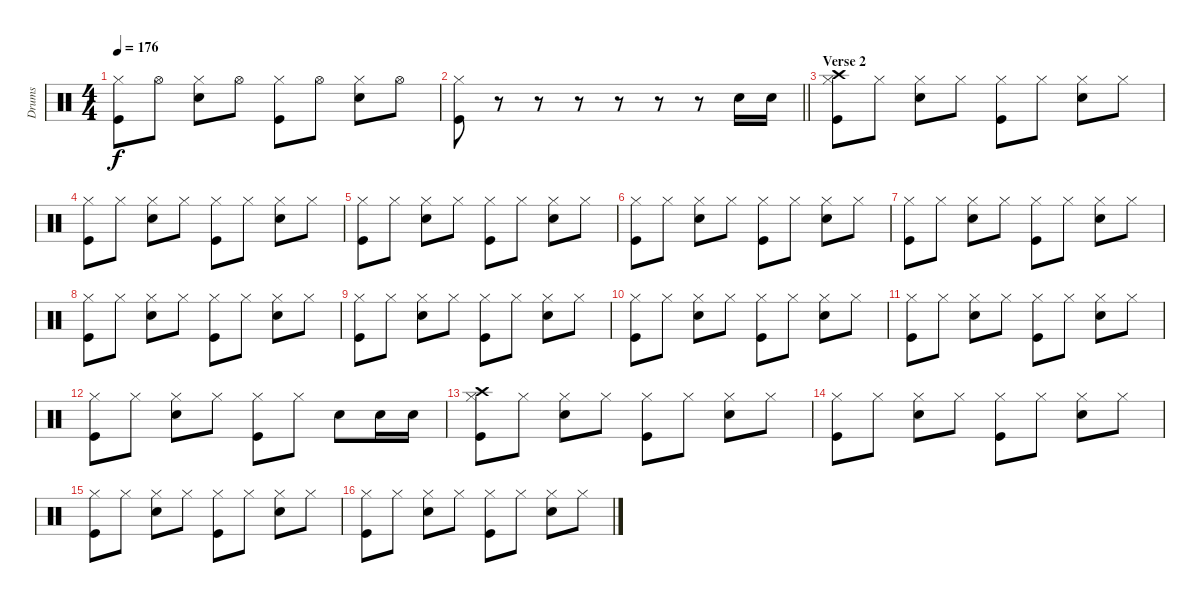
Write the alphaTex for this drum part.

\track ("Drums" "Drums") {instrument percussion}
\staff {score}
\articulation defaults
\ts (4 4)
\tempo 176
\clef neutral
\ks c
("Hi-Hat (closed)" "Kick (hit)").8{dy f} "Hi-Hat (open)".8 ("Hi-Hat (closed)" "Electric Snare (hit)").8 "Hi-Hat (open)".8 ("Hi-Hat (closed)" "Kick (hit)").8 "Hi-Hat (open)".8 ("Hi-Hat (closed)" "Electric Snare (hit)").8 "Hi-Hat (open)".8 |
\barLineRight lightlight
("Hi-Hat (closed)" "Kick (hit)").8 r.8 r.8 r.8 r.8 r.8 r.8 "Electric Snare (hit)".16 "Electric Snare (hit)".16 |
\section ("" "Verse 2")
("Crash high (hit)" "Hi-Hat (closed)" "Kick (hit)").8 "Hi-Hat (closed)".8 ("Hi-Hat (closed)" "Electric Snare (hit)").8 "Hi-Hat (closed)".8 ("Hi-Hat (closed)" "Kick (hit)").8 "Hi-Hat (closed)".8 ("Hi-Hat (closed)" "Electric Snare (hit)").8 "Hi-Hat (closed)".8 |
("Hi-Hat (closed)" "Kick (hit)").8 "Hi-Hat (closed)".8 ("Hi-Hat (closed)" "Electric Snare (hit)").8 "Hi-Hat (closed)".8 ("Hi-Hat (closed)" "Kick (hit)").8 "Hi-Hat (closed)".8 ("Hi-Hat (closed)" "Electric Snare (hit)").8 "Hi-Hat (closed)".8 |
("Hi-Hat (closed)" "Kick (hit)").8 "Hi-Hat (closed)".8 ("Hi-Hat (closed)" "Electric Snare (hit)").8 "Hi-Hat (closed)".8 ("Hi-Hat (closed)" "Kick (hit)").8 "Hi-Hat (closed)".8 ("Hi-Hat (closed)" "Electric Snare (hit)").8 "Hi-Hat (closed)".8 |
("Hi-Hat (closed)" "Kick (hit)").8 "Hi-Hat (closed)".8 ("Hi-Hat (closed)" "Electric Snare (hit)").8 "Hi-Hat (closed)".8 ("Hi-Hat (closed)" "Kick (hit)").8 "Hi-Hat (closed)".8 ("Hi-Hat (closed)" "Electric Snare (hit)").8 "Hi-Hat (closed)".8 |
("Hi-Hat (closed)" "Kick (hit)").8 "Hi-Hat (closed)".8 ("Hi-Hat (closed)" "Electric Snare (hit)").8 "Hi-Hat (closed)".8 ("Hi-Hat (closed)" "Kick (hit)").8 "Hi-Hat (closed)".8 ("Hi-Hat (closed)" "Electric Snare (hit)").8 "Hi-Hat (closed)".8 |
("Hi-Hat (closed)" "Kick (hit)").8 "Hi-Hat (closed)".8 ("Hi-Hat (closed)" "Electric Snare (hit)").8 "Hi-Hat (closed)".8 ("Hi-Hat (closed)" "Kick (hit)").8 "Hi-Hat (closed)".8 ("Hi-Hat (closed)" "Electric Snare (hit)").8 "Hi-Hat (closed)".8 |
("Hi-Hat (closed)" "Kick (hit)").8 "Hi-Hat (closed)".8 ("Hi-Hat (closed)" "Electric Snare (hit)").8 "Hi-Hat (closed)".8 ("Hi-Hat (closed)" "Kick (hit)").8 "Hi-Hat (closed)".8 ("Hi-Hat (closed)" "Electric Snare (hit)").8 "Hi-Hat (closed)".8 |
("Hi-Hat (closed)" "Kick (hit)").8 "Hi-Hat (closed)".8 ("Hi-Hat (closed)" "Electric Snare (hit)").8 "Hi-Hat (closed)".8 ("Hi-Hat (closed)" "Kick (hit)").8 "Hi-Hat (closed)".8 ("Hi-Hat (closed)" "Electric Snare (hit)").8 "Hi-Hat (closed)".8 |
("Hi-Hat (closed)" "Kick (hit)").8 "Hi-Hat (closed)".8 ("Hi-Hat (closed)" "Electric Snare (hit)").8 "Hi-Hat (closed)".8 ("Hi-Hat (closed)" "Kick (hit)").8 "Hi-Hat (closed)".8 ("Hi-Hat (closed)" "Electric Snare (hit)").8 "Hi-Hat (closed)".8 |
("Hi-Hat (closed)" "Kick (hit)").8 "Hi-Hat (closed)".8 ("Hi-Hat (closed)" "Electric Snare (hit)").8 "Hi-Hat (closed)".8 ("Hi-Hat (closed)" "Kick (hit)").8 "Hi-Hat (closed)".8 "Electric Snare (hit)".8 "Electric Snare (hit)".16 "Electric Snare (hit)".16 |
("Crash high (hit)" "Hi-Hat (closed)" "Kick (hit)").8 "Hi-Hat (closed)".8 ("Hi-Hat (closed)" "Electric Snare (hit)").8 "Hi-Hat (closed)".8 ("Hi-Hat (closed)" "Kick (hit)").8 "Hi-Hat (closed)".8 ("Hi-Hat (closed)" "Electric Snare (hit)").8 "Hi-Hat (closed)".8 |
("Hi-Hat (closed)" "Kick (hit)").8 "Hi-Hat (closed)".8 ("Hi-Hat (closed)" "Electric Snare (hit)").8 "Hi-Hat (closed)".8 ("Hi-Hat (closed)" "Kick (hit)").8 "Hi-Hat (closed)".8 ("Hi-Hat (closed)" "Electric Snare (hit)").8 "Hi-Hat (closed)".8 |
("Hi-Hat (closed)" "Kick (hit)").8 "Hi-Hat (closed)".8 ("Hi-Hat (closed)" "Electric Snare (hit)").8 "Hi-Hat (closed)".8 ("Hi-Hat (closed)" "Kick (hit)").8 "Hi-Hat (closed)".8 ("Hi-Hat (closed)" "Electric Snare (hit)").8 "Hi-Hat (closed)".8 |
("Hi-Hat (closed)" "Kick (hit)").8 "Hi-Hat (closed)".8 ("Hi-Hat (closed)" "Electric Snare (hit)").8 "Hi-Hat (closed)".8 ("Hi-Hat (closed)" "Kick (hit)").8 "Hi-Hat (closed)".8 ("Hi-Hat (closed)" "Electric Snare (hit)").8 "Hi-Hat (closed)".8
